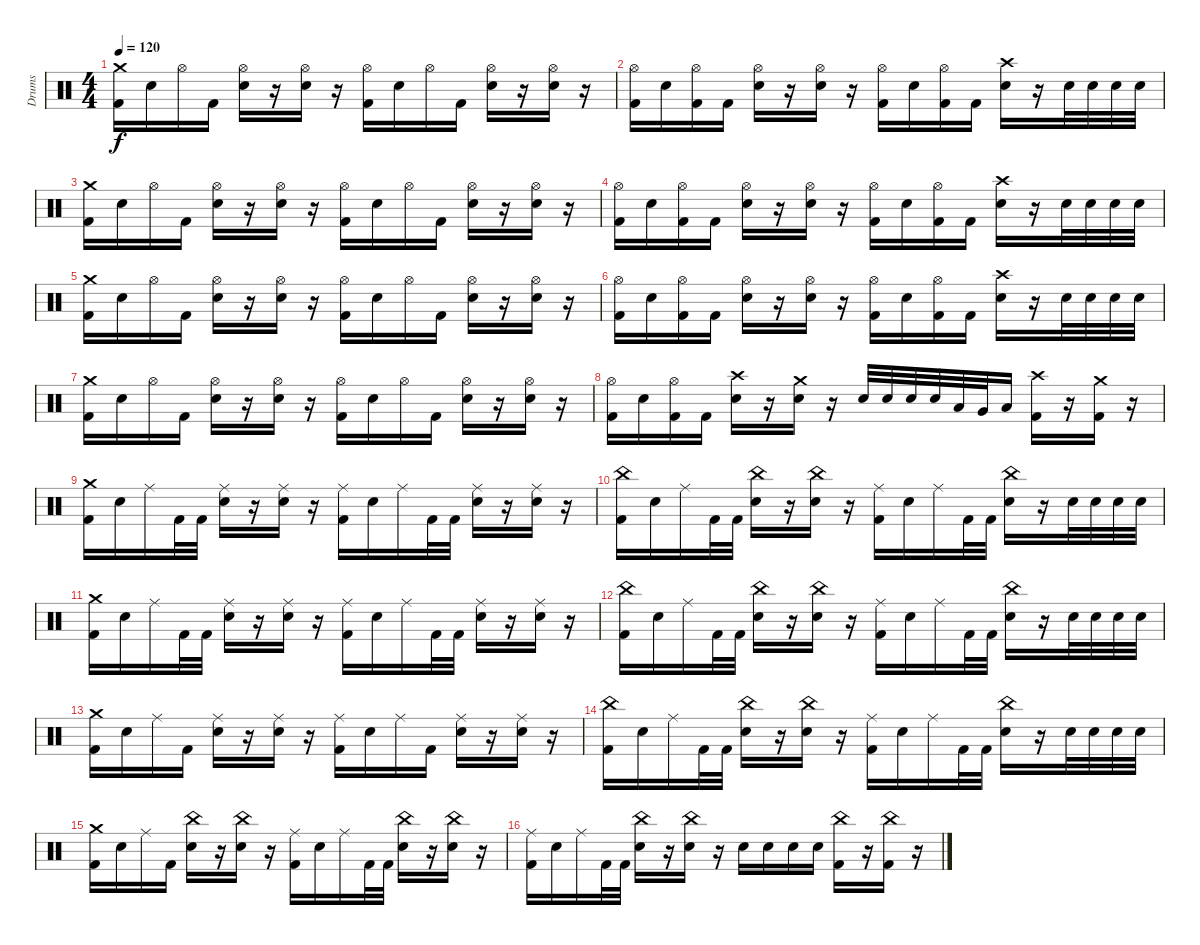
\track ("Drums" "Drums") {instrument percussion}
\staff {score}
\articulation defaults
\ts (4 4)
\tempo 120
\clef neutral
\ks c
("Crash medium (hit)" "Kick (hit) 2").16{dy f} "Electric Snare (hit)".16 "Hi-Hat (open)".16 "Kick (hit) 2".16 ("Hi-Hat (open)" "Electric Snare (hit)").16 r.16 ("Hi-Hat (open)" "Electric Snare (hit)").16 r.16 ("Hi-Hat (open)" "Kick (hit) 2").16 "Electric Snare (hit)".16 "Hi-Hat (open)".16 "Kick (hit) 2".16 ("Hi-Hat (open)" "Electric Snare (hit)").16 r.16 ("Hi-Hat (open)" "Electric Snare (hit)").16 r.16 |
("Hi-Hat (open)" "Kick (hit) 2").16 "Electric Snare (hit)".16 ("Hi-Hat (open)" "Kick (hit) 2").16 "Kick (hit) 2".16 ("Hi-Hat (open)" "Electric Snare (hit)").16 r.16 ("Hi-Hat (open)" "Electric Snare (hit)").16 r.16 ("Hi-Hat (open)" "Kick (hit) 2").16 "Electric Snare (hit)".16 ("Hi-Hat (open)" "Kick (hit) 2").16 "Kick (hit) 2".16 ("Crash high (hit)" "Electric Snare (hit)").16 r.16 "Electric Snare (hit)".32 "Electric Snare (hit)".32 "Electric Snare (hit)".32 "Electric Snare (hit)".32 |
("Crash medium (hit)" "Kick (hit) 2").16 "Electric Snare (hit)".16 "Hi-Hat (open)".16 "Kick (hit) 2".16 ("Hi-Hat (open)" "Electric Snare (hit)").16 r.16 ("Hi-Hat (open)" "Electric Snare (hit)").16 r.16 ("Hi-Hat (open)" "Kick (hit) 2").16 "Electric Snare (hit)".16 "Hi-Hat (open)".16 "Kick (hit) 2".16 ("Hi-Hat (open)" "Electric Snare (hit)").16 r.16 ("Hi-Hat (open)" "Electric Snare (hit)").16 r.16 |
("Hi-Hat (open)" "Kick (hit) 2").16 "Electric Snare (hit)".16 ("Hi-Hat (open)" "Kick (hit) 2").16 "Kick (hit) 2".16 ("Hi-Hat (open)" "Electric Snare (hit)").16 r.16 ("Hi-Hat (open)" "Electric Snare (hit)").16 r.16 ("Hi-Hat (open)" "Kick (hit) 2").16 "Electric Snare (hit)".16 ("Hi-Hat (open)" "Kick (hit) 2").16 "Kick (hit) 2".16 ("Crash high (hit)" "Electric Snare (hit)").16 r.16 "Electric Snare (hit)".32 "Electric Snare (hit)".32 "Electric Snare (hit)".32 "Electric Snare (hit)".32 |
("Crash medium (hit)" "Kick (hit) 2").16 "Electric Snare (hit)".16 "Hi-Hat (open)".16 "Kick (hit) 2".16 ("Hi-Hat (open)" "Electric Snare (hit)").16 r.16 ("Hi-Hat (open)" "Electric Snare (hit)").16 r.16 ("Hi-Hat (open)" "Kick (hit) 2").16 "Electric Snare (hit)".16 "Hi-Hat (open)".16 "Kick (hit) 2".16 ("Hi-Hat (open)" "Electric Snare (hit)").16 r.16 ("Hi-Hat (open)" "Electric Snare (hit)").16 r.16 |
("Hi-Hat (open)" "Kick (hit) 2").16 "Electric Snare (hit)".16 ("Hi-Hat (open)" "Kick (hit) 2").16 "Kick (hit) 2".16 ("Hi-Hat (open)" "Electric Snare (hit)").16 r.16 ("Hi-Hat (open)" "Electric Snare (hit)").16 r.16 ("Hi-Hat (open)" "Kick (hit) 2").16 "Electric Snare (hit)".16 ("Hi-Hat (open)" "Kick (hit) 2").16 "Kick (hit) 2".16 ("Crash high (hit)" "Electric Snare (hit)").16 r.16 "Electric Snare (hit)".32 "Electric Snare (hit)".32 "Electric Snare (hit)".32 "Electric Snare (hit)".32 |
("Crash medium (hit)" "Kick (hit) 2").16 "Electric Snare (hit)".16 "Hi-Hat (open)".16 "Kick (hit) 2".16 ("Hi-Hat (open)" "Electric Snare (hit)").16 r.16 ("Hi-Hat (open)" "Electric Snare (hit)").16 r.16 ("Hi-Hat (open)" "Kick (hit) 2").16 "Electric Snare (hit)".16 "Hi-Hat (open)".16 "Kick (hit) 2".16 ("Hi-Hat (open)" "Electric Snare (hit)").16 r.16 ("Hi-Hat (open)" "Electric Snare (hit)").16 r.16 |
("Hi-Hat (open)" "Kick (hit) 2").16 "Electric Snare (hit)".16 ("Hi-Hat (open)" "Kick (hit) 2").16 "Kick (hit) 2".16 ("Crash high (hit)" "Electric Snare (hit)").16 r.16 ("Crash medium (hit)" "Electric Snare (hit)").16 r.16 "Electric Snare (hit)".32 "Electric Snare (hit)".32 "Electric Snare (hit)".32 "Electric Snare (hit)".32 "Low Tom (hit)".32 "Very Low Tom (hit)".32 "Low Floor Tom (hit)".16 ("Crash high (hit)" "Kick (hit) 2").16 r.16 ("Crash medium (hit)" "Kick (hit) 2").16 r.16 |
("Crash medium (hit)" "Kick (hit) 2").16 "Electric Snare (hit)".16 "Ride (middle)".16 "Kick (hit) 2".32 "Kick (hit) 2".32 ("Ride (middle)" "Electric Snare (hit)").16 r.16 ("Ride (middle)" "Electric Snare (hit)").16 r.16 ("Ride (middle)" "Kick (hit) 2").16 "Electric Snare (hit)".16 "Ride (middle)".16 "Kick (hit) 2".32 "Kick (hit) 2".32 ("Ride (middle)" "Electric Snare (hit)").16 r.16 ("Ride (middle)" "Electric Snare (hit)").16 r.16 |
("China (hit)" "Kick (hit) 2").16 "Electric Snare (hit)".16 "Ride (middle)".16 "Kick (hit) 2".32 "Kick (hit) 2".32 ("China (hit)" "Electric Snare (hit)").16 r.16 ("China (hit)" "Electric Snare (hit)").16 r.16 ("Ride (middle)" "Kick (hit) 2").16 "Electric Snare (hit)".16 "Ride (middle)".16 "Kick (hit) 2".32 "Kick (hit) 2".32 ("China (hit)" "Electric Snare (hit)").16 r.16 "Electric Snare (hit)".32 "Electric Snare (hit)".32 "Electric Snare (hit)".32 "Electric Snare (hit)".32 |
("Crash medium (hit)" "Kick (hit) 2").16 "Electric Snare (hit)".16 "Ride (middle)".16 "Kick (hit) 2".32 "Kick (hit) 2".32 ("Ride (middle)" "Electric Snare (hit)").16 r.16 ("Ride (middle)" "Electric Snare (hit)").16 r.16 ("Ride (middle)" "Kick (hit) 2").16 "Electric Snare (hit)".16 "Ride (middle)".16 "Kick (hit) 2".32 "Kick (hit) 2".32 ("Ride (middle)" "Electric Snare (hit)").16 r.16 ("Ride (middle)" "Electric Snare (hit)").16 r.16 |
("China (hit)" "Kick (hit) 2").16 "Electric Snare (hit)".16 "Ride (middle)".16 "Kick (hit) 2".32 "Kick (hit) 2".32 ("China (hit)" "Electric Snare (hit)").16 r.16 ("China (hit)" "Electric Snare (hit)").16 r.16 ("Ride (middle)" "Kick (hit) 2").16 "Electric Snare (hit)".16 "Ride (middle)".16 "Kick (hit) 2".32 "Kick (hit) 2".32 ("China (hit)" "Electric Snare (hit)").16 r.16 "Electric Snare (hit)".32 "Electric Snare (hit)".32 "Electric Snare (hit)".32 "Electric Snare (hit)".32 |
("Crash medium (hit)" "Kick (hit) 2").16 "Electric Snare (hit)".16 "Ride (middle)".16 "Kick (hit) 2".16 ("Ride (middle)" "Electric Snare (hit)").16 r.16 ("Ride (middle)" "Electric Snare (hit)").16 r.16 ("Ride (middle)" "Kick (hit) 2").16 "Electric Snare (hit)".16 "Ride (middle)".16 "Kick (hit) 2".16 ("Ride (middle)" "Electric Snare (hit)").16 r.16 ("Ride (middle)" "Electric Snare (hit)").16 r.16 |
("China (hit)" "Kick (hit) 2").16 "Electric Snare (hit)".16 "Ride (middle)".16 "Kick (hit) 2".32 "Kick (hit) 2".32 ("China (hit)" "Electric Snare (hit)").16 r.16 ("China (hit)" "Electric Snare (hit)").16 r.16 ("Ride (middle)" "Kick (hit) 2").16 "Electric Snare (hit)".16 "Ride (middle)".16 "Kick (hit) 2".32 "Kick (hit) 2".32 ("China (hit)" "Electric Snare (hit)").16 r.16 "Electric Snare (hit)".32 "Electric Snare (hit)".32 "Electric Snare (hit)".32 "Electric Snare (hit)".32 |
("Crash medium (hit)" "Kick (hit) 2").16 "Electric Snare (hit)".16 "Ride (middle)".16 "Kick (hit) 2".16 ("China (hit)" "Electric Snare (hit)").16 r.16 ("China (hit)" "Electric Snare (hit)").16 r.16 ("Ride (middle)" "Kick (hit) 2").16 "Electric Snare (hit)".16 "Ride (middle)".16 "Kick (hit) 2".32 "Kick (hit) 2".32 ("China (hit)" "Electric Snare (hit)").16 r.16 ("China (hit)" "Electric Snare (hit)").16 r.16 |
("Ride (middle)" "Kick (hit) 2").16 "Electric Snare (hit)".16 "Ride (middle)".16 "Kick (hit) 2".32 "Kick (hit) 2".32 ("China (hit)" "Electric Snare (hit)").16 r.16 ("China (hit)" "Electric Snare (hit)").16 r.16 "Electric Snare (hit)".16 "Electric Snare (hit)".16 "Electric Snare (hit)".16 "Electric Snare (hit)".16 ("China (hit)" "Kick (hit) 2").16 r.16 ("China (hit)" "Kick (hit) 2").16 r.16
